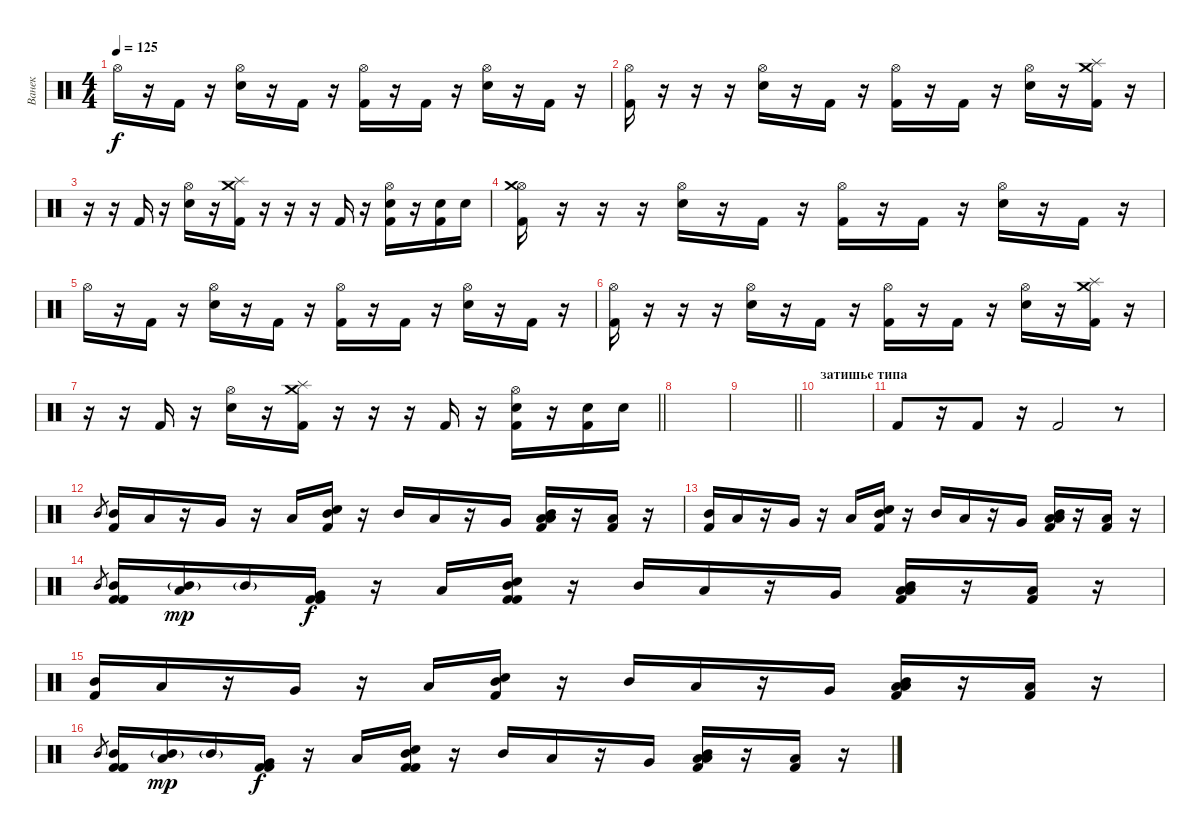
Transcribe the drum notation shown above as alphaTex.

\track ("Ванек" "Ванек") {instrument percussion}
\staff {score}
\articulation defaults
\ts (4 4)
\tempo 125
\clef neutral
\ks c "Hi-Hat (open)".16{dy f}
r.16 "Kick (hit) 2".16 r.16 ("Hi-Hat (open)" "Snare (hit) 2").16 r.16 "Kick (hit) 2".16 r.16 ("Hi-Hat (open)" "Kick (hit) 2").16 r.16 "Kick (hit) 2".16 r.16 ("Hi-Hat (open)" "Snare (hit) 2").16 r.16 "Kick (hit) 2".16 r.16 |
("Hi-Hat (open)" "Kick (hit) 2").16 r.16 r.16 r.16 ("Hi-Hat (open)" "Snare (hit) 2").16 r.16 "Kick (hit) 2".16 r.16 ("Hi-Hat (open)" "Kick (hit) 2").16 r.16 "Kick (hit) 2".16 r.16 ("Hi-Hat (open)" "Snare (hit) 2").16 r.16 ("Crash medium (hit)" "Splash (hit)" "Kick (hit) 2").16 r.16 |
r.16 r.16 "Kick (hit) 2".16 r.16 ("Hi-Hat (open)" "Snare (hit) 2").16 r.16 ("Crash medium (hit)" "Splash (hit)" "Kick (hit) 2").16 r.16 r.16 r.16 "Kick (hit) 2".16 r.16 ("Hi-Hat (open)" "Snare (hit) 2" "Kick (hit) 2").16 r.16 ("Snare (hit) 2" "Kick (hit) 2").16 "Snare (hit) 2".16 |
("Hi-Hat (open)" "Crash medium (hit)" "Kick (hit) 2").16 r.16 r.16 r.16 ("Hi-Hat (open)" "Snare (hit) 2").16 r.16 "Kick (hit) 2".16 r.16 ("Hi-Hat (open)" "Kick (hit) 2").16 r.16 "Kick (hit) 2".16 r.16 ("Hi-Hat (open)" "Snare (hit) 2").16 r.16 "Kick (hit) 2".16 r.16 |
"Hi-Hat (open)".16 r.16 "Kick (hit) 2".16 r.16 ("Hi-Hat (open)" "Snare (hit) 2").16 r.16 "Kick (hit) 2".16 r.16 ("Hi-Hat (open)" "Kick (hit) 2").16 r.16 "Kick (hit) 2".16 r.16 ("Hi-Hat (open)" "Snare (hit) 2").16 r.16 "Kick (hit) 2".16 r.16 |
("Hi-Hat (open)" "Kick (hit) 2").16 r.16 r.16 r.16 ("Hi-Hat (open)" "Snare (hit) 2").16 r.16 "Kick (hit) 2".16 r.16 ("Hi-Hat (open)" "Kick (hit) 2").16 r.16 "Kick (hit) 2".16 r.16 ("Hi-Hat (open)" "Snare (hit) 2").16 r.16 ("Crash medium (hit)" "Splash (hit)" "Kick (hit) 2").16 r.16 |
\barLineRight lightlight
r.16 r.16 "Kick (hit) 2".16 r.16 ("Hi-Hat (open)" "Snare (hit) 2").16 r.16 ("Crash medium (hit)" "Splash (hit)" "Kick (hit) 2").16 r.16 r.16 r.16 "Kick (hit) 2".16 r.16 ("Hi-Hat (open)" "Snare (hit) 2" "Kick (hit) 2").16 r.16 ("Snare (hit) 2" "Kick (hit) 2").16 "Snare (hit) 2".16 |
|
\barLineRight lightlight
|
\section ("" "затишье типа")
|
"Kick (hit) 2".8 r.16 "Kick (hit) 2".8 r.16 "Kick (hit) 2".2 r.8 |
"Mid Tom (hit)".8{gr} ("Mid Tom (hit)" "Kick (hit) 2").16 "Low Tom (hit)".16 r.16 "Very Low Tom (hit)".16 r.16 "Low Floor Tom (hit)".16 ("Mid Tom (hit)" "Snare (hit) 2" "Kick (hit) 2").16 r.16 "Mid Tom (hit)".16 "Low Tom (hit)".16 r.16 "Very Low Tom (hit)".16 ("Low Tom (hit)" "Mid Tom (hit)" "Low Floor Tom (hit)" "Kick (hit) 2").16 r.16 ("Low Tom (hit)" "Kick (hit) 2").16 r.16 |
("Mid Tom (hit)" "Kick (hit) 2").16 "Low Tom (hit)".16 r.16 "Very Low Tom (hit)".16 r.16 "Low Floor Tom (hit)".16 ("Mid Tom (hit)" "Snare (hit) 2" "Kick (hit) 2").16 r.16 "Mid Tom (hit)".16 "Low Tom (hit)".16 r.16 "Very Low Tom (hit)".16 ("Low Tom (hit)" "Mid Tom (hit)" "Low Floor Tom (hit)" "Kick (hit) 2").16 r.16 ("Low Tom (hit)" "Kick (hit) 2").16 r.16 |
"Mid Tom (hit)".8{gr} ("Mid Tom (hit)" "Kick (hit) 2" "Kick (hit) 2").16 ("Low Tom (hit)" "Mid Tom (hit)"{g}).16{dy mp} "Mid Tom (hit)"{g}.16 ("Very Low Tom (hit)" "Kick (hit) 2" "Kick (hit) 2").16{dy f} r.16 "Low Floor Tom (hit)".16 ("Mid Tom (hit)" "Snare (hit) 2" "Kick (hit) 2" "Kick (hit) 2").16 r.16 "Mid Tom (hit)".16 "Low Tom (hit)".16 r.16 "Very Low Tom (hit)".16 ("Low Tom (hit)" "Mid Tom (hit)" "Low Floor Tom (hit)" "Kick (hit) 2").16 r.16 ("Low Tom (hit)" "Kick (hit) 2").16 r.16 |
("Mid Tom (hit)" "Kick (hit) 2").16 "Low Tom (hit)".16 r.16 "Very Low Tom (hit)".16 r.16 "Low Floor Tom (hit)".16 ("Mid Tom (hit)" "Snare (hit) 2" "Kick (hit) 2").16 r.16 "Mid Tom (hit)".16 "Low Tom (hit)".16 r.16 "Very Low Tom (hit)".16 ("Low Tom (hit)" "Mid Tom (hit)" "Low Floor Tom (hit)" "Kick (hit) 2").16 r.16 ("Low Tom (hit)" "Kick (hit) 2").16 r.16 |
"Mid Tom (hit)".8{gr} ("Mid Tom (hit)" "Kick (hit) 2" "Kick (hit) 2").16 ("Low Tom (hit)" "Mid Tom (hit)"{g}).16{dy mp} "Mid Tom (hit)"{g}.16 ("Very Low Tom (hit)" "Kick (hit) 2" "Kick (hit) 2").16{dy f} r.16 "Low Floor Tom (hit)".16 ("Mid Tom (hit)" "Snare (hit) 2" "Kick (hit) 2" "Kick (hit) 2").16 r.16 "Mid Tom (hit)".16 "Low Tom (hit)".16 r.16 "Very Low Tom (hit)".16 ("Low Tom (hit)" "Mid Tom (hit)" "Low Floor Tom (hit)" "Kick (hit) 2").16 r.16 ("Low Tom (hit)" "Kick (hit) 2").16 r.16
